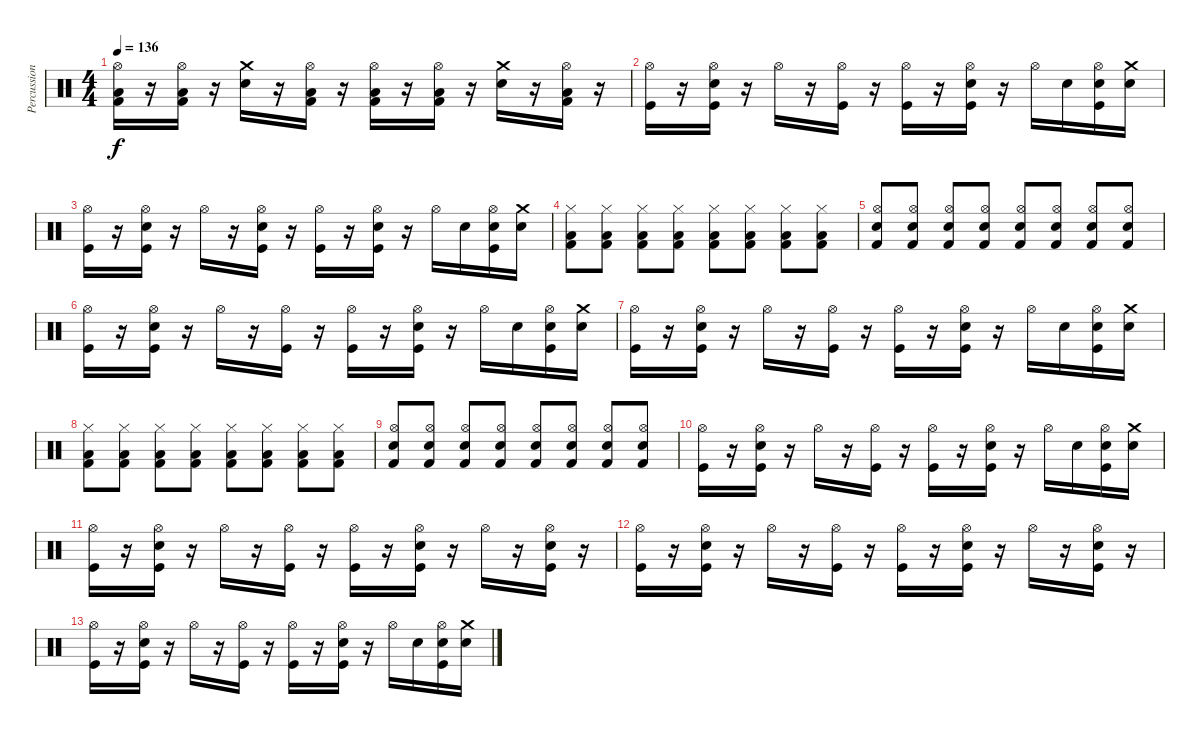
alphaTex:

\track ("Percussion" "Percussion") {instrument percussion}
\staff {score}
\articulation defaults
\ts (4 4)
\tempo 136
\clef neutral
\ks c
("Kick (hit) 2" "Low Floor Tom (hit)" "Hi-Hat (open)").16{dy f} r.16 ("Kick (hit) 2" "Low Floor Tom (hit)" "Hi-Hat (open)").16 r.16 ("Snare (hit) 2" "Crash medium (hit)").16 r.16 ("Kick (hit) 2" "Low Floor Tom (hit)" "Hi-Hat (open)").16 r.16 ("Kick (hit) 2" "Low Floor Tom (hit)" "Hi-Hat (open)").16 r.16 ("Kick (hit) 2" "Low Floor Tom (hit)" "Hi-Hat (open)").16 r.16 ("Snare (hit) 2" "Crash medium (hit)").16 r.16 ("Kick (hit) 2" "Low Floor Tom (hit)" "Hi-Hat (open)").16 r.16 |
("Kick (hit)" "Hi-Hat (open)").16 r.16 ("Kick (hit)" "Snare (hit) 2" "Hi-Hat (open)").16 r.16 "Hi-Hat (open)".16 r.16 ("Kick (hit)" "Hi-Hat (open)").16 r.16 ("Kick (hit)" "Hi-Hat (open)").16 r.16 ("Kick (hit)" "Snare (hit) 2" "Hi-Hat (open)").16 r.16 "Hi-Hat (open)".16 "Electric Snare (hit)".16 ("Kick (hit)" "Snare (hit) 2" "Hi-Hat (open)").16 ("Crash medium (hit)" "Electric Snare (hit)").16 |
("Kick (hit)" "Hi-Hat (open)").16 r.16 ("Kick (hit)" "Snare (hit) 2" "Hi-Hat (open)").16 r.16 "Hi-Hat (open)".16 r.16 ("Kick (hit)" "Electric Snare (hit)" "Hi-Hat (open)").16 r.16 ("Kick (hit)" "Hi-Hat (open)").16 r.16 ("Kick (hit)" "Snare (hit) 2" "Hi-Hat (open)").16 r.16 "Hi-Hat (open)".16 "Electric Snare (hit)".16 ("Kick (hit)" "Snare (hit) 2" "Hi-Hat (open)").16 ("Crash medium (hit)" "Electric Snare (hit)").16 |
("Hi-Hat (closed)" "Low Floor Tom (hit)" "Kick (hit) 2").8 ("Hi-Hat (closed)" "Low Floor Tom (hit)" "Kick (hit) 2").8 ("Hi-Hat (closed)" "Low Floor Tom (hit)" "Kick (hit) 2").8 ("Hi-Hat (closed)" "Low Floor Tom (hit)" "Kick (hit) 2").8 ("Hi-Hat (closed)" "Low Floor Tom (hit)" "Kick (hit) 2").8 ("Hi-Hat (closed)" "Low Floor Tom (hit)" "Kick (hit) 2").8 ("Hi-Hat (closed)" "Low Floor Tom (hit)" "Kick (hit) 2").8 ("Hi-Hat (closed)" "Low Floor Tom (hit)" "Kick (hit) 2").8 |
("Snare (hit) 2" "Hi-Hat (open)" "Kick (hit) 2").8 ("Snare (hit) 2" "Hi-Hat (open)" "Kick (hit) 2").8 ("Snare (hit) 2" "Hi-Hat (open)" "Kick (hit) 2").8 ("Snare (hit) 2" "Hi-Hat (open)" "Kick (hit) 2").8 ("Snare (hit) 2" "Hi-Hat (open)" "Kick (hit) 2").8 ("Snare (hit) 2" "Hi-Hat (open)" "Kick (hit) 2").8 ("Snare (hit) 2" "Hi-Hat (open)" "Kick (hit) 2").8 ("Snare (hit) 2" "Hi-Hat (open)" "Kick (hit) 2").8 |
("Kick (hit)" "Hi-Hat (open)").16 r.16 ("Kick (hit)" "Snare (hit) 2" "Hi-Hat (open)").16 r.16 "Hi-Hat (open)".16 r.16 ("Kick (hit)" "Hi-Hat (open)").16 r.16 ("Kick (hit)" "Hi-Hat (open)").16 r.16 ("Kick (hit)" "Snare (hit) 2" "Hi-Hat (open)").16 r.16 "Hi-Hat (open)".16 "Electric Snare (hit)".16 ("Kick (hit)" "Snare (hit) 2" "Hi-Hat (open)").16 ("Crash medium (hit)" "Electric Snare (hit)").16 |
("Kick (hit)" "Hi-Hat (open)").16 r.16 ("Kick (hit)" "Snare (hit) 2" "Hi-Hat (open)").16 r.16 "Hi-Hat (open)".16 r.16 ("Kick (hit)" "Hi-Hat (open)").16 r.16 ("Kick (hit)" "Hi-Hat (open)").16 r.16 ("Kick (hit)" "Snare (hit) 2" "Hi-Hat (open)").16 r.16 "Hi-Hat (open)".16 "Electric Snare (hit)".16 ("Kick (hit)" "Snare (hit) 2" "Hi-Hat (open)").16 ("Crash medium (hit)" "Electric Snare (hit)").16 |
("Hi-Hat (closed)" "Low Floor Tom (hit)" "Kick (hit) 2").8 ("Hi-Hat (closed)" "Low Floor Tom (hit)" "Kick (hit) 2").8 ("Hi-Hat (closed)" "Low Floor Tom (hit)" "Kick (hit) 2").8 ("Hi-Hat (closed)" "Low Floor Tom (hit)" "Kick (hit) 2").8 ("Hi-Hat (closed)" "Low Floor Tom (hit)" "Kick (hit) 2").8 ("Hi-Hat (closed)" "Low Floor Tom (hit)" "Kick (hit) 2").8 ("Hi-Hat (closed)" "Low Floor Tom (hit)" "Kick (hit) 2").8 ("Hi-Hat (closed)" "Low Floor Tom (hit)" "Kick (hit) 2").8 |
("Snare (hit) 2" "Hi-Hat (open)" "Kick (hit) 2").8 ("Snare (hit) 2" "Hi-Hat (open)" "Kick (hit) 2").8 ("Snare (hit) 2" "Hi-Hat (open)" "Kick (hit) 2").8 ("Snare (hit) 2" "Hi-Hat (open)" "Kick (hit) 2").8 ("Snare (hit) 2" "Hi-Hat (open)" "Kick (hit) 2").8 ("Snare (hit) 2" "Hi-Hat (open)" "Kick (hit) 2").8 ("Snare (hit) 2" "Hi-Hat (open)" "Kick (hit) 2").8 ("Snare (hit) 2" "Hi-Hat (open)" "Kick (hit) 2").8 |
("Kick (hit)" "Hi-Hat (open)").16 r.16 ("Kick (hit)" "Snare (hit) 2" "Hi-Hat (open)").16 r.16 "Hi-Hat (open)".16 r.16 ("Kick (hit)" "Hi-Hat (open)").16 r.16 ("Kick (hit)" "Hi-Hat (open)").16 r.16 ("Kick (hit)" "Snare (hit) 2" "Hi-Hat (open)").16 r.16 "Hi-Hat (open)".16 "Electric Snare (hit)".16 ("Kick (hit)" "Snare (hit) 2" "Hi-Hat (open)").16 ("Crash medium (hit)" "Electric Snare (hit)").16 |
("Kick (hit)" "Hi-Hat (open)").16 r.16 ("Kick (hit)" "Snare (hit) 2" "Hi-Hat (open)").16 r.16 "Hi-Hat (open)".16 r.16 ("Kick (hit)" "Hi-Hat (open)").16 r.16 ("Kick (hit)" "Hi-Hat (open)").16 r.16 ("Kick (hit)" "Snare (hit) 2" "Hi-Hat (open)").16 r.16 "Hi-Hat (open)".16 r.16 ("Kick (hit)" "Snare (hit) 2" "Hi-Hat (open)").16 r.16 |
("Kick (hit)" "Hi-Hat (open)").16 r.16 ("Kick (hit)" "Snare (hit) 2" "Hi-Hat (open)").16 r.16 "Hi-Hat (open)".16 r.16 ("Kick (hit)" "Hi-Hat (open)").16 r.16 ("Kick (hit)" "Hi-Hat (open)").16 r.16 ("Kick (hit)" "Snare (hit) 2" "Hi-Hat (open)").16 r.16 "Hi-Hat (open)".16 r.16 ("Kick (hit)" "Snare (hit) 2" "Hi-Hat (open)").16 r.16 |
("Kick (hit)" "Hi-Hat (open)").16 r.16 ("Kick (hit)" "Snare (hit) 2" "Hi-Hat (open)").16 r.16 "Hi-Hat (open)".16 r.16 ("Kick (hit)" "Hi-Hat (open)").16 r.16 ("Kick (hit)" "Hi-Hat (open)").16 r.16 ("Kick (hit)" "Snare (hit) 2" "Hi-Hat (open)").16 r.16 "Hi-Hat (open)".16 "Electric Snare (hit)".16 ("Kick (hit)" "Snare (hit) 2" "Hi-Hat (open)").16 ("Crash medium (hit)" "Electric Snare (hit)").16
